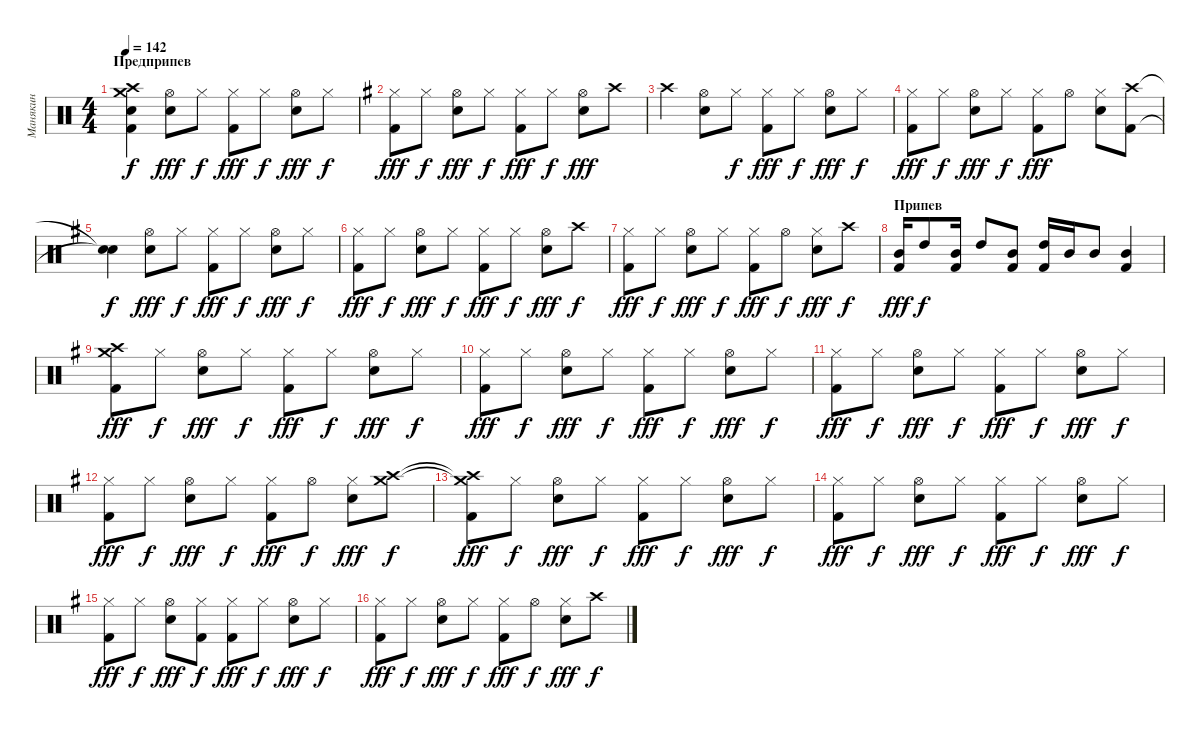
\track ("Манякин" "Манякин") {instrument percussion}
\staff {score}
\articulation defaults
\ts (4 4)
\section ("" "Предприпев")
\tempo 142
\clef neutral
\ks c
("Crash high (hit)" "Kick (hit) 2" "Crash medium (hit)" "Electric Snare (hit)").4{dy f} ("Hi-Hat (open)" "Electric Snare (hit)").8{dy fff} "Hi-Hat (closed)".8{dy f} ("Hi-Hat (closed)" "Kick (hit) 2").8{dy fff} "Hi-Hat (closed)".8{dy f} ("Hi-Hat (open)" "Electric Snare (hit)").8{dy fff} "Hi-Hat (closed)".8{dy f} |
\ks eminor
("Hi-Hat (closed)" "Kick (hit) 2").8{dy fff} "Hi-Hat (closed)".8{dy f} ("Hi-Hat (open)" "Electric Snare (hit)").8{dy fff} "Hi-Hat (closed)".8{dy f} ("Hi-Hat (closed)" "Kick (hit) 2").8{dy fff} "Hi-Hat (closed)".8{dy f} ("Hi-Hat (open)" "Electric Snare (hit)").8{dy fff} "Crash high (hit)".8 |
"Crash high (hit)".4 ("Hi-Hat (open)" "Electric Snare (hit)").8 "Hi-Hat (closed)".8{dy f} ("Hi-Hat (closed)" "Kick (hit) 2").8{dy fff} "Hi-Hat (closed)".8{dy f} ("Hi-Hat (open)" "Electric Snare (hit)").8{dy fff} "Hi-Hat (closed)".8{dy f} |
("Hi-Hat (closed)" "Kick (hit) 2").8{dy fff} "Hi-Hat (closed)".8{dy f} ("Hi-Hat (open)" "Electric Snare (hit)").8{dy fff} "Hi-Hat (closed)".8{dy f} ("Hi-Hat (closed)" "Kick (hit) 2").8{dy fff} "Hi-Hat (open)".8 ("Hi-Hat (closed)" "Electric Snare (hit)").8 ("Crash high (hit)" "Kick (hit) 2").8 |
("Snare (hit)"{t} "Snare (hit)"{t}).4{dy f} ("Hi-Hat (open)" "Electric Snare (hit)").8{dy fff} "Hi-Hat (closed)".8{dy f} ("Hi-Hat (closed)" "Kick (hit) 2").8{dy fff} "Hi-Hat (closed)".8{dy f} ("Hi-Hat (open)" "Electric Snare (hit)").8{dy fff} "Hi-Hat (closed)".8{dy f} |
("Hi-Hat (closed)" "Kick (hit) 2").8{dy fff} "Hi-Hat (closed)".8{dy f} ("Hi-Hat (open)" "Electric Snare (hit)").8{dy fff} "Hi-Hat (closed)".8{dy f} ("Hi-Hat (closed)" "Kick (hit) 2").8{dy fff} "Hi-Hat (closed)".8{dy f} ("Hi-Hat (open)" "Electric Snare (hit)").8{dy fff} "Crash high (hit)".8{dy f} |
("Hi-Hat (closed)" "Kick (hit) 2").8{dy fff} "Hi-Hat (closed)".8{dy f} ("Hi-Hat (open)" "Electric Snare (hit)").8{dy fff} "Hi-Hat (closed)".8{dy f} ("Hi-Hat (closed)" "Kick (hit) 2").8{dy fff} "Hi-Hat (open)".8{dy f} ("Hi-Hat (closed)" "Electric Snare (hit)").8{dy fff} "Crash high (hit)".8{dy f} |
\section ("" "Припев")
("Mid Tom (hit)" "Kick (hit) 2").16{dy fff} "High Tom (hit)".8{dy f} ("Mid Tom (hit)" "Kick (hit) 2").16 "High Tom (hit)".8 ("Mid Tom (hit)" "Kick (hit) 2").8 ("High Tom (hit)" "Kick (hit) 2").16 "Mid Tom (hit)".16 "Mid Tom (hit)".8 ("Mid Tom (hit)" "Kick (hit) 2").4 |
("Crash high (hit)" "Crash medium (hit)" "Kick (hit) 2").8{dy fff} "Hi-Hat (closed)".8{dy f} ("Hi-Hat (open)" "Electric Snare (hit)").8{dy fff} "Hi-Hat (closed)".8{dy f} ("Hi-Hat (closed)" "Kick (hit) 2").8{dy fff} "Hi-Hat (closed)".8{dy f} ("Hi-Hat (open)" "Electric Snare (hit)").8{dy fff} "Hi-Hat (closed)".8{dy f} |
("Hi-Hat (closed)" "Kick (hit) 2").8{dy fff} "Hi-Hat (closed)".8{dy f} ("Hi-Hat (open)" "Electric Snare (hit)").8{dy fff} "Hi-Hat (closed)".8{dy f} ("Hi-Hat (closed)" "Kick (hit) 2").8{dy fff} "Hi-Hat (closed)".8{dy f} ("Hi-Hat (open)" "Electric Snare (hit)").8{dy fff} "Hi-Hat (closed)".8{dy f} |
("Hi-Hat (closed)" "Kick (hit) 2").8{dy fff} "Hi-Hat (closed)".8{dy f} ("Hi-Hat (open)" "Electric Snare (hit)").8{dy fff} "Hi-Hat (closed)".8{dy f} ("Hi-Hat (closed)" "Kick (hit) 2").8{dy fff} "Hi-Hat (closed)".8{dy f} ("Hi-Hat (open)" "Electric Snare (hit)").8{dy fff} "Hi-Hat (closed)".8{dy f} |
("Hi-Hat (closed)" "Kick (hit) 2").8{dy fff} "Hi-Hat (closed)".8{dy f} ("Hi-Hat (open)" "Electric Snare (hit)").8{dy fff} "Hi-Hat (closed)".8{dy f} ("Hi-Hat (closed)" "Kick (hit) 2").8{dy fff} "Hi-Hat (open)".8{dy f} ("Hi-Hat (closed)" "Electric Snare (hit)").8{dy fff} ("Crash high (hit)" "Crash medium (hit)").8{dy f} |
("Crash high (hit)"{t} "Crash medium (hit)"{t} "Kick (hit) 2").8{dy fff} "Hi-Hat (closed)".8{dy f} ("Hi-Hat (open)" "Electric Snare (hit)").8{dy fff} "Hi-Hat (closed)".8{dy f} ("Hi-Hat (closed)" "Kick (hit) 2").8{dy fff} "Hi-Hat (closed)".8{dy f} ("Hi-Hat (open)" "Electric Snare (hit)").8{dy fff} "Hi-Hat (closed)".8{dy f} |
("Hi-Hat (closed)" "Kick (hit) 2").8{dy fff} "Hi-Hat (closed)".8{dy f} ("Hi-Hat (open)" "Electric Snare (hit)").8{dy fff} "Hi-Hat (closed)".8{dy f} ("Hi-Hat (closed)" "Kick (hit) 2").8{dy fff} "Hi-Hat (closed)".8{dy f} ("Hi-Hat (open)" "Electric Snare (hit)").8{dy fff} "Hi-Hat (closed)".8{dy f} |
("Hi-Hat (closed)" "Kick (hit) 2").8{dy fff} "Hi-Hat (closed)".8{dy f} ("Hi-Hat (open)" "Electric Snare (hit)").8{dy fff} ("Hi-Hat (closed)" "Kick (hit) 2").8{dy f} ("Hi-Hat (closed)" "Kick (hit) 2").8{dy fff} "Hi-Hat (closed)".8{dy f} ("Hi-Hat (open)" "Electric Snare (hit)").8{dy fff} "Hi-Hat (closed)".8{dy f} |
("Hi-Hat (closed)" "Kick (hit) 2").8{dy fff} "Hi-Hat (closed)".8{dy f} ("Hi-Hat (open)" "Electric Snare (hit)").8{dy fff} "Hi-Hat (closed)".8{dy f} ("Hi-Hat (closed)" "Kick (hit) 2").8{dy fff} "Hi-Hat (open)".8{dy f} ("Hi-Hat (closed)" "Electric Snare (hit)").8{dy fff} "Crash high (hit)".8{dy f}
